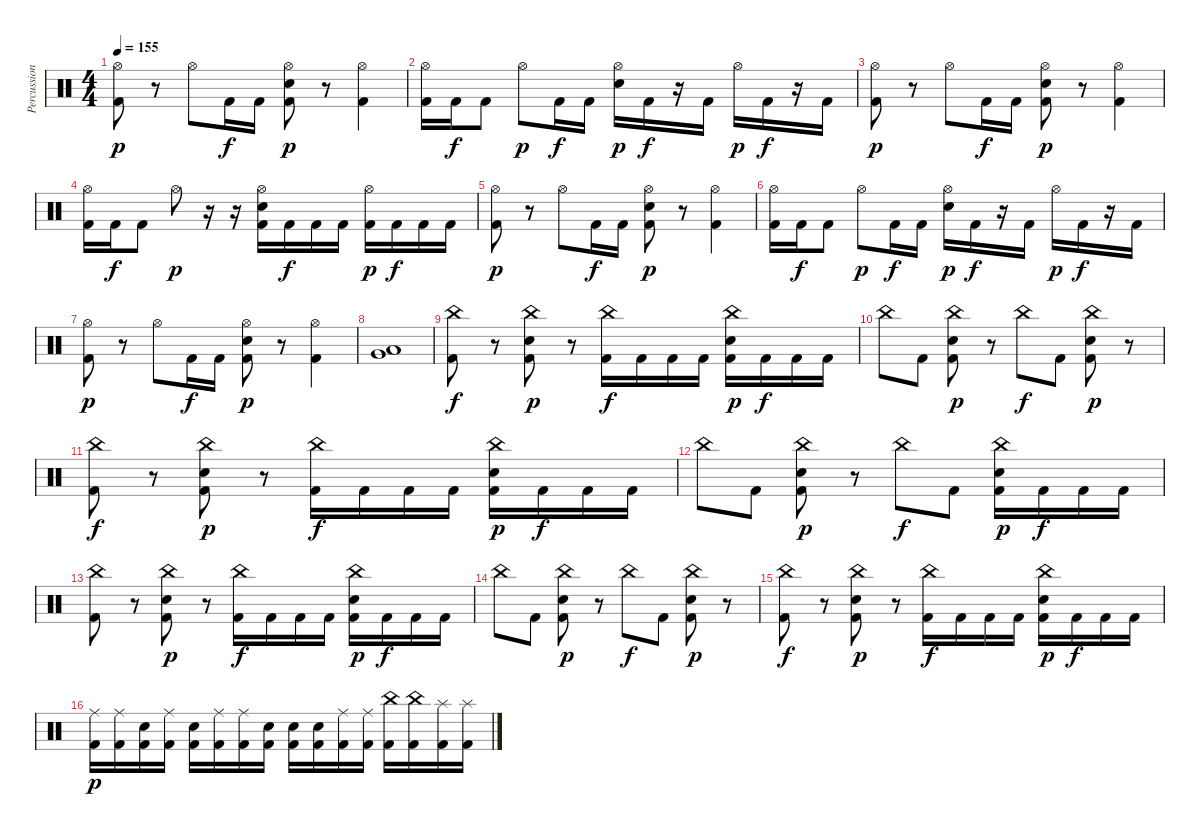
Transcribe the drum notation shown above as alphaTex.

\track ("Percussion" "Percussion") {instrument percussion}
\staff {score}
\articulation defaults
\ts (4 4)
\tempo 155
\clef neutral
\ks c
("Hi-Hat (open)" "Kick (hit) 2").8{dy p} r.8 "Hi-Hat (open)".8 "Kick (hit) 2".16{dy f} "Kick (hit) 2".16 ("Hi-Hat (open)" "Electric Snare (hit)" "Kick (hit) 2").8{dy p} r.8 ("Hi-Hat (open)" "Kick (hit) 2").4 |
("Hi-Hat (open)" "Kick (hit) 2").16 "Kick (hit) 2".16{dy f} "Kick (hit) 2".8 "Hi-Hat (open)".8{dy p} "Kick (hit) 2".16{dy f} "Kick (hit) 2".16 ("Hi-Hat (open)" "Electric Snare (hit)").16{dy p} "Kick (hit) 2".16{dy f} r.16 "Kick (hit) 2".16 "Hi-Hat (open)".16{dy p} "Kick (hit) 2".16{dy f} r.16 "Kick (hit) 2".16 |
("Hi-Hat (open)" "Kick (hit) 2").8{dy p} r.8 "Hi-Hat (open)".8 "Kick (hit) 2".16{dy f} "Kick (hit) 2".16 ("Hi-Hat (open)" "Electric Snare (hit)" "Kick (hit) 2").8{dy p} r.8 ("Hi-Hat (open)" "Kick (hit) 2").4 |
("Hi-Hat (open)" "Kick (hit) 2").16 "Kick (hit) 2".16{dy f} "Kick (hit) 2".8 "Hi-Hat (open)".8{dy p} r.16 r.16 ("Hi-Hat (open)" "Electric Snare (hit)" "Kick (hit) 2").16 "Kick (hit) 2".16{dy f} "Kick (hit) 2".16 "Kick (hit) 2".16 ("Hi-Hat (open)" "Kick (hit) 2").16{dy p} "Kick (hit) 2".16{dy f} "Kick (hit) 2".16 "Kick (hit) 2".16 |
("Hi-Hat (open)" "Kick (hit) 2").8{dy p} r.8 "Hi-Hat (open)".8 "Kick (hit) 2".16{dy f} "Kick (hit) 2".16 ("Hi-Hat (open)" "Electric Snare (hit)" "Kick (hit) 2").8{dy p} r.8 ("Hi-Hat (open)" "Kick (hit) 2").4 |
("Hi-Hat (open)" "Kick (hit) 2").16 "Kick (hit) 2".16{dy f} "Kick (hit) 2".8 "Hi-Hat (open)".8{dy p} "Kick (hit) 2".16{dy f} "Kick (hit) 2".16 ("Hi-Hat (open)" "Electric Snare (hit)").16{dy p} "Kick (hit) 2".16{dy f} r.16 "Kick (hit) 2".16 "Hi-Hat (open)".16{dy p} "Kick (hit) 2".16{dy f} r.16 "Kick (hit) 2".16 |
("Hi-Hat (open)" "Kick (hit) 2").8{dy p} r.8 "Hi-Hat (open)".8 "Kick (hit) 2".16{dy f} "Kick (hit) 2".16 ("Hi-Hat (open)" "Electric Snare (hit)" "Kick (hit) 2").8{dy p} r.8 ("Hi-Hat (open)" "Kick (hit) 2").4 |
("Very Low Tom (hit)" "Low Floor Tom (hit)").1 |
("China (hit)" "Kick (hit) 2").8{dy f} r.8 ("China (hit)" "Electric Snare (hit)" "Kick (hit) 2").8{dy p} r.8 ("China (hit)" "Kick (hit) 2").16{dy f} "Kick (hit) 2".16 "Kick (hit) 2".16 "Kick (hit) 2".16 ("China (hit)" "Electric Snare (hit)" "Kick (hit) 2").16{dy p} "Kick (hit) 2".16{dy f} "Kick (hit) 2".16 "Kick (hit) 2".16 |
"China (hit)".8 "Kick (hit) 2".8 ("China (hit)" "Electric Snare (hit)" "Kick (hit) 2").8{dy p} r.8 "China (hit)".8{dy f} "Kick (hit) 2".8 ("China (hit)" "Electric Snare (hit)" "Kick (hit) 2").8{dy p} r.8 |
("China (hit)" "Kick (hit) 2").8{dy f} r.8 ("China (hit)" "Electric Snare (hit)" "Kick (hit) 2").8{dy p} r.8 ("China (hit)" "Kick (hit) 2").16{dy f} "Kick (hit) 2".16 "Kick (hit) 2".16 "Kick (hit) 2".16 ("China (hit)" "Electric Snare (hit)" "Kick (hit) 2").16{dy p} "Kick (hit) 2".16{dy f} "Kick (hit) 2".16 "Kick (hit) 2".16 |
"China (hit)".8 "Kick (hit) 2".8 ("China (hit)" "Electric Snare (hit)" "Kick (hit) 2").8{dy p} r.8 "China (hit)".8{dy f} "Kick (hit) 2".8 ("China (hit)" "Electric Snare (hit)" "Kick (hit) 2").16{dy p} "Kick (hit) 2".16{dy f} "Kick (hit) 2".16 "Kick (hit) 2".16 |
("China (hit)" "Kick (hit) 2").8 r.8 ("China (hit)" "Electric Snare (hit)" "Kick (hit) 2").8{dy p} r.8 ("China (hit)" "Kick (hit) 2").16{dy f} "Kick (hit) 2".16 "Kick (hit) 2".16 "Kick (hit) 2".16 ("China (hit)" "Electric Snare (hit)" "Kick (hit) 2").16{dy p} "Kick (hit) 2".16{dy f} "Kick (hit) 2".16 "Kick (hit) 2".16 |
"China (hit)".8 "Kick (hit) 2".8 ("China (hit)" "Electric Snare (hit)" "Kick (hit) 2").8{dy p} r.8 "China (hit)".8{dy f} "Kick (hit) 2".8 ("China (hit)" "Electric Snare (hit)" "Kick (hit) 2").8{dy p} r.8 |
("China (hit)" "Kick (hit) 2").8{dy f} r.8 ("China (hit)" "Electric Snare (hit)" "Kick (hit) 2").8{dy p} r.8 ("China (hit)" "Kick (hit) 2").16{dy f} "Kick (hit) 2".16 "Kick (hit) 2".16 "Kick (hit) 2".16 ("China (hit)" "Electric Snare (hit)" "Kick (hit) 2").16{dy p} "Kick (hit) 2".16{dy f} "Kick (hit) 2".16 "Kick (hit) 2".16 |
("Ride (middle)" "Kick (hit) 2").16{dy p} ("Ride (middle)" "Kick (hit) 2").16 ("Electric Snare (hit)" "Kick (hit) 2").16 ("Ride (middle)" "Kick (hit) 2").16 ("Electric Snare (hit)" "Kick (hit) 2").16 ("Ride (middle)" "Kick (hit) 2").16 ("Ride (middle)" "Kick (hit) 2").16 ("Electric Snare (hit)" "Kick (hit) 2").16 ("Electric Snare (hit)" "Kick (hit) 2").16 ("Electric Snare (hit)" "Kick (hit) 2").16 ("Ride (middle)" "Kick (hit) 2").16 ("Ride (middle)" "Kick (hit) 2").16 ("China (hit)" "Kick (hit) 2").16 ("China (hit)" "Kick (hit) 2").16 ("Splash (hit)" "Kick (hit) 2").16 ("Splash (hit)" "Kick (hit) 2").16
